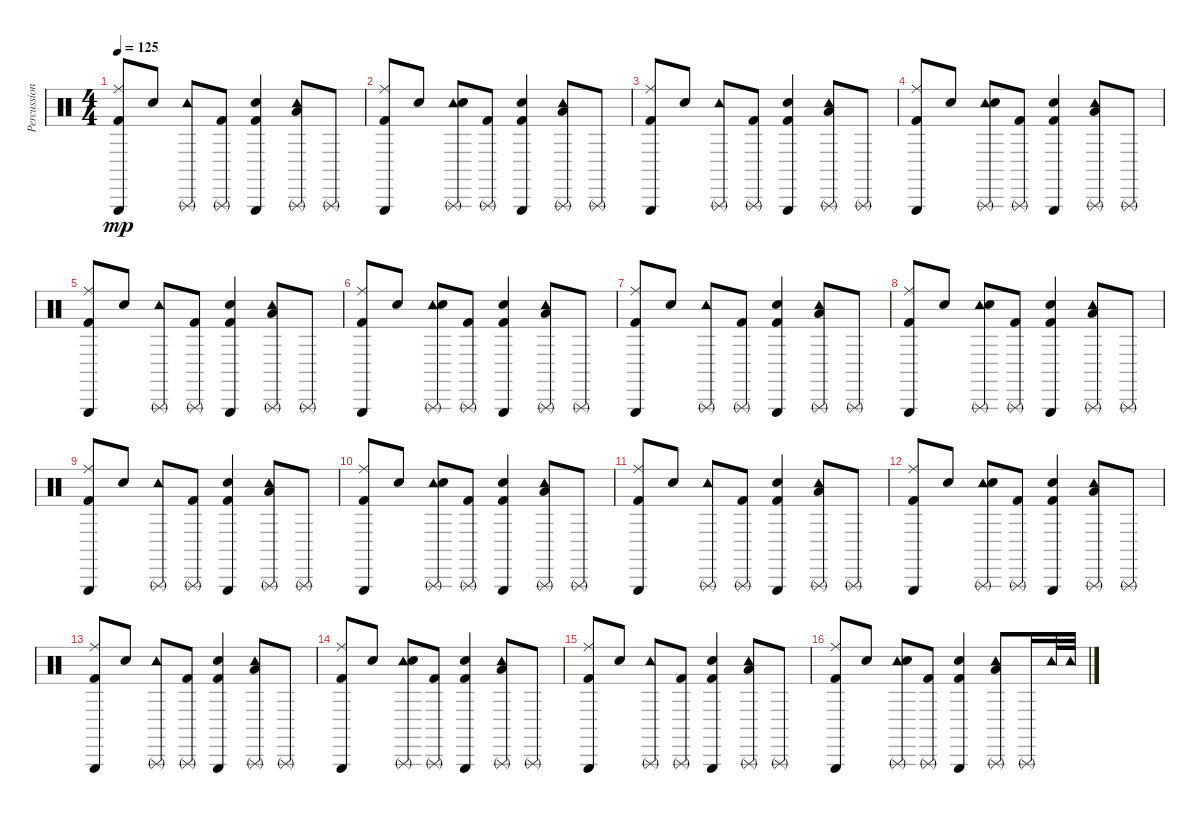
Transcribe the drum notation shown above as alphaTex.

\track ("Percussion" "Percussion") {instrument percussion}
\staff {score}
\articulation defaults
\ts (4 4)
\tempo 125
\clef neutral
\ks c
("Triangle (hit)" "Ride (middle)" "Kick (hit) 2").8{dy mp} "Snare (hit) 2".8 ("Triangle (rnute)" "Tambourine (hit)").8 ("Triangle (rnute)" "Kick (hit) 2").8 ("Triangle (hit)" "Kick (hit) 2" "Snare (hit) 2").4 ("Tambourine (hit)" "Low Tom (hit)" "Triangle (rnute)").8 "Triangle (rnute)".8 |
("Triangle (hit)" "Ride (middle)" "Kick (hit) 2").8 "Snare (hit) 2".8 ("Triangle (rnute)" "Tambourine (hit)" "Snare (hit) 2").8 ("Triangle (rnute)" "Kick (hit) 2").8 ("Triangle (hit)" "Kick (hit) 2" "Snare (hit) 2").4 ("Tambourine (hit)" "Low Tom (hit)" "Triangle (rnute)").8 "Triangle (rnute)".8 |
("Triangle (hit)" "Ride (middle)" "Kick (hit) 2").8 "Snare (hit) 2".8 ("Triangle (rnute)" "Tambourine (hit)").8 ("Triangle (rnute)" "Kick (hit) 2").8 ("Triangle (hit)" "Kick (hit) 2" "Snare (hit) 2").4 ("Tambourine (hit)" "Low Tom (hit)" "Triangle (rnute)").8 "Triangle (rnute)".8 |
("Triangle (hit)" "Ride (middle)" "Kick (hit) 2").8 "Snare (hit) 2".8 ("Triangle (rnute)" "Tambourine (hit)" "Snare (hit) 2").8 ("Triangle (rnute)" "Kick (hit) 2").8 ("Triangle (hit)" "Kick (hit) 2" "Snare (hit) 2").4 ("Tambourine (hit)" "Low Tom (hit)" "Triangle (rnute)").8 "Triangle (rnute)".8 |
("Triangle (hit)" "Ride (middle)" "Kick (hit) 2").8 "Snare (hit) 2".8 ("Triangle (rnute)" "Tambourine (hit)").8 ("Triangle (rnute)" "Kick (hit) 2").8 ("Triangle (hit)" "Kick (hit) 2" "Snare (hit) 2").4 ("Tambourine (hit)" "Low Tom (hit)" "Triangle (rnute)").8 "Triangle (rnute)".8 |
("Triangle (hit)" "Ride (middle)" "Kick (hit) 2").8 "Snare (hit) 2".8 ("Triangle (rnute)" "Tambourine (hit)" "Snare (hit) 2").8 ("Triangle (rnute)" "Kick (hit) 2").8 ("Triangle (hit)" "Kick (hit) 2" "Snare (hit) 2").4 ("Tambourine (hit)" "Low Tom (hit)" "Triangle (rnute)").8 "Triangle (rnute)".8 |
("Triangle (hit)" "Ride (middle)" "Kick (hit) 2").8 "Snare (hit) 2".8 ("Triangle (rnute)" "Tambourine (hit)").8 ("Triangle (rnute)" "Kick (hit) 2").8 ("Triangle (hit)" "Kick (hit) 2" "Snare (hit) 2").4 ("Tambourine (hit)" "Low Tom (hit)" "Triangle (rnute)").8 "Triangle (rnute)".8 |
("Triangle (hit)" "Ride (middle)" "Kick (hit) 2").8 "Snare (hit) 2".8 ("Triangle (rnute)" "Tambourine (hit)" "Snare (hit) 2").8 ("Triangle (rnute)" "Kick (hit) 2").8 ("Triangle (hit)" "Kick (hit) 2" "Snare (hit) 2").4 ("Tambourine (hit)" "Low Tom (hit)" "Triangle (rnute)").8 "Triangle (rnute)".8 |
("Triangle (hit)" "Ride (middle)" "Kick (hit) 2").8 "Snare (hit) 2".8 ("Triangle (rnute)" "Tambourine (hit)").8 ("Triangle (rnute)" "Kick (hit) 2").8 ("Triangle (hit)" "Kick (hit) 2" "Snare (hit) 2").4 ("Tambourine (hit)" "Low Tom (hit)" "Triangle (rnute)").8 "Triangle (rnute)".8 |
("Triangle (hit)" "Ride (middle)" "Kick (hit) 2").8 "Snare (hit) 2".8 ("Triangle (rnute)" "Tambourine (hit)" "Snare (hit) 2").8 ("Triangle (rnute)" "Kick (hit) 2").8 ("Triangle (hit)" "Kick (hit) 2" "Snare (hit) 2").4 ("Tambourine (hit)" "Low Tom (hit)" "Triangle (rnute)").8 "Triangle (rnute)".8 |
("Triangle (hit)" "Ride (middle)" "Kick (hit) 2").8 "Snare (hit) 2".8 ("Triangle (rnute)" "Tambourine (hit)").8 ("Triangle (rnute)" "Kick (hit) 2").8 ("Triangle (hit)" "Kick (hit) 2" "Snare (hit) 2").4 ("Tambourine (hit)" "Low Tom (hit)" "Triangle (rnute)").8 "Triangle (rnute)".8 |
("Triangle (hit)" "Ride (middle)" "Kick (hit) 2").8 "Snare (hit) 2".8 ("Triangle (rnute)" "Tambourine (hit)" "Snare (hit) 2").8 ("Triangle (rnute)" "Kick (hit) 2").8 ("Triangle (hit)" "Kick (hit) 2" "Snare (hit) 2").4 ("Tambourine (hit)" "Low Tom (hit)" "Triangle (rnute)").8 "Triangle (rnute)".8 |
("Triangle (hit)" "Ride (middle)" "Kick (hit) 2").8 "Snare (hit) 2".8{volume 12} ("Triangle (rnute)" "Tambourine (hit)").8 ("Triangle (rnute)" "Kick (hit) 2").8 ("Triangle (hit)" "Kick (hit) 2" "Snare (hit) 2").4{volume 11} ("Tambourine (hit)" "Low Tom (hit)" "Triangle (rnute)").8{volume 11} "Triangle (rnute)".8{volume 10} |
("Triangle (hit)" "Ride (middle)" "Kick (hit) 2").8{volume 10} "Snare (hit) 2".8 ("Triangle (rnute)" "Tambourine (hit)" "Snare (hit) 2").8{volume 10} ("Triangle (rnute)" "Kick (hit) 2").8{volume 10} ("Triangle (hit)" "Kick (hit) 2" "Snare (hit) 2").4 ("Tambourine (hit)" "Low Tom (hit)" "Triangle (rnute)").8{volume 10} "Triangle (rnute)".8{volume 9} |
("Triangle (hit)" "Ride (middle)" "Kick (hit) 2").8{volume 8} "Snare (hit) 2".8{volume 9} ("Triangle (rnute)" "Tambourine (hit)").8{volume 8} ("Triangle (rnute)" "Kick (hit) 2").8{volume 8} ("Triangle (hit)" "Kick (hit) 2" "Snare (hit) 2").4{volume 8} ("Tambourine (hit)" "Low Tom (hit)" "Triangle (rnute)").8{volume 8} "Triangle (rnute)".8{volume 7} |
("Triangle (hit)" "Ride (middle)" "Kick (hit) 2").8{volume 6} "Snare (hit) 2".8{volume 6} ("Triangle (rnute)" "Tambourine (hit)" "Snare (hit) 2").8{volume 5} ("Triangle (rnute)" "Kick (hit) 2").8{volume 5} ("Triangle (hit)" "Kick (hit) 2" "Snare (hit) 2").4{volume 5} ("Tambourine (hit)" "Low Tom (hit)" "Triangle (rnute)").8{volume 5} "Triangle (rnute)".16{volume 4} "Tambourine (hit)".32{volume 3} "Tambourine (hit)".32
